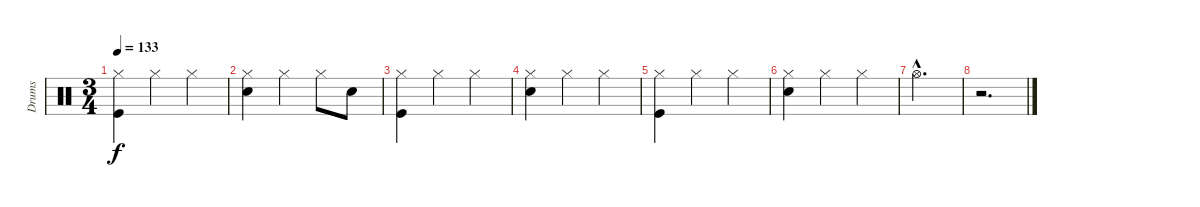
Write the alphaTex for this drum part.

\track ("Drums" "Drums") {instrument percussion}
\staff {score}
\articulation defaults
\ts (3 4)
\tempo 133
\clef neutral
\ks c
("Hi-Hat (closed)" "Kick (hit)").4{dy f} "Hi-Hat (closed)".4 "Hi-Hat (closed)".4 |
("Hi-Hat (closed)" "Snare (hit) 2").4 "Hi-Hat (closed)".4 "Hi-Hat (closed)".8 "Snare (hit) 2".8 |
("Hi-Hat (closed)" "Kick (hit)").4 "Hi-Hat (closed)".4 "Hi-Hat (closed)".4 |
("Hi-Hat (closed)" "Snare (hit) 2").4 "Hi-Hat (closed)".4 "Hi-Hat (closed)".4 |
("Hi-Hat (closed)" "Kick (hit)").4 "Hi-Hat (closed)".4 "Hi-Hat (closed)".4 |
("Hi-Hat (closed)" "Snare (hit) 2").4 "Hi-Hat (closed)".4 "Hi-Hat (closed)".4 |
"Hi-Hat (open)"{hac}.2{d} |
r.2{d}
